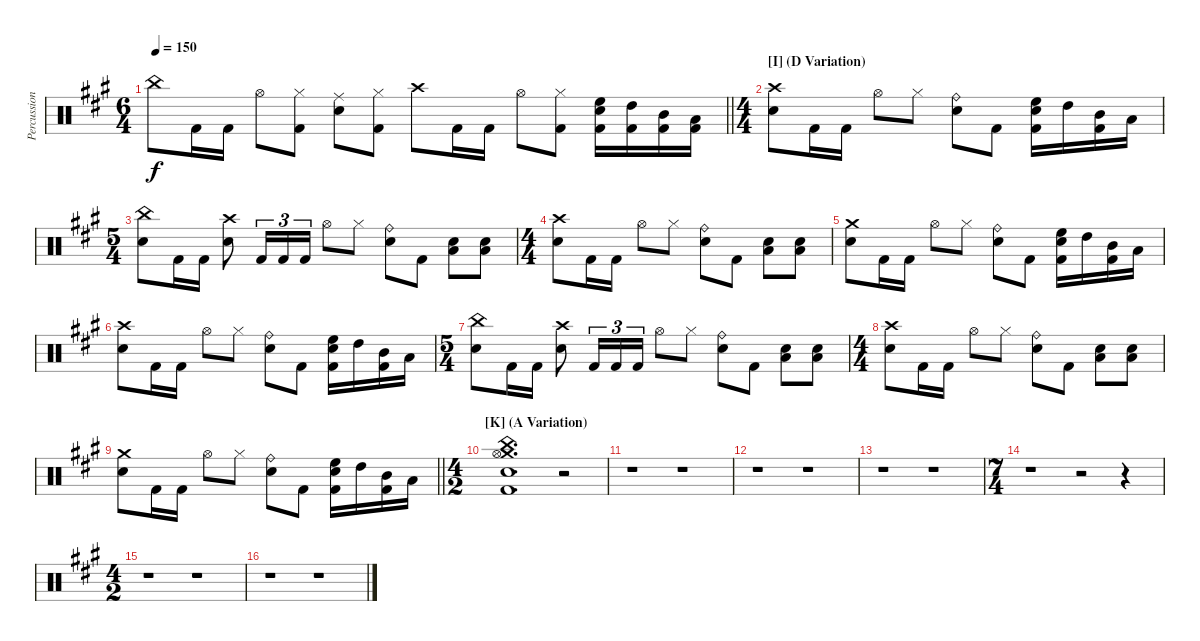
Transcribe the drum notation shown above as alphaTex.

\track ("Percussion" "Percussion") {instrument percussion}
\staff {score}
\articulation defaults
\ts (6 4)
\tempo 150
\clef neutral
\barLineRight lightlight
\ks f#minor "China (hit)".8{dy f} "Kick (hit) 2".16 "Kick (hit) 2".16 "Hi-Hat (open)".8
("Hi-Hat (closed)" "Kick (hit) 2").8 ("Ride (middle)" "Snare (hit) 2").8 ("Hi-Hat (closed)" "Kick (hit) 2").8 "Crash high (hit)".8 "Kick (hit) 2".16 "Kick (hit) 2".16 "Hi-Hat (open)".8 ("Hi-Hat (closed)" "Kick (hit) 2").8 ("High Floor Tom (hit)" "Snare (hit) 2" "Kick (hit) 2").16 ("High Tom (hit)" "Kick (hit) 2").16 ("Mid Tom (hit)" "Kick (hit) 2").16 ("Low Tom (hit)" "Kick (hit) 2").16 |
\ts (4 4)
\section ("" "[I] (D Variation)")
("Crash high (hit)" "Snare (hit) 2").8 "Kick (hit) 2".16 "Kick (hit) 2".16 "Hi-Hat (open)".8 "Hi-Hat (closed)".8 ("Ride (bell)" "Snare (hit) 2").8 "Kick (hit) 2".8 ("High Floor Tom (hit)" "Snare (hit) 2" "Kick (hit) 2").16 "High Tom (hit)".16 ("Mid Tom (hit)" "Kick (hit) 2").16 "Low Tom (hit)".16 |
\ts (5 4)
("China (hit)" "Snare (hit) 2").8 "Kick (hit) 2".16 "Kick (hit) 2".16 ("Crash high (hit)" "Snare (hit) 2").8 "Kick (hit) 2".16{tu (3 2)} "Kick (hit) 2".16{tu (3 2)} "Kick (hit) 2".16{tu (3 2)} "Hi-Hat (open)".8 "Hi-Hat (closed)".8 ("Ride (bell)" "Snare (hit) 2").8 "Kick (hit) 2".8 ("Snare (hit) 2" "Low Floor Tom (hit)").8 ("Snare (hit) 2" "Low Floor Tom (hit)").8 |
\ts (4 4)
("Crash high (hit)" "Snare (hit) 2").8 "Kick (hit) 2".16 "Kick (hit) 2".16 "Hi-Hat (open)".8 "Hi-Hat (closed)".8 ("Ride (bell)" "Snare (hit) 2").8 "Kick (hit) 2".8 ("Snare (hit) 2" "Low Floor Tom (hit)").8 ("Snare (hit) 2" "Low Floor Tom (hit)").8 |
("Crash medium (hit)" "Snare (hit) 2").8 "Kick (hit) 2".16 "Kick (hit) 2".16 "Hi-Hat (open)".8 "Hi-Hat (closed)".8 ("Ride (bell)" "Snare (hit) 2").8 "Kick (hit) 2".8 ("High Floor Tom (hit)" "Snare (hit) 2" "Kick (hit) 2").16 "High Tom (hit)".16 ("Mid Tom (hit)" "Kick (hit) 2").16 "Low Tom (hit)".16 |
("Crash high (hit)" "Snare (hit) 2").8 "Kick (hit) 2".16 "Kick (hit) 2".16 "Hi-Hat (open)".8 "Hi-Hat (closed)".8 ("Ride (bell)" "Snare (hit) 2").8 "Kick (hit) 2".8 ("High Floor Tom (hit)" "Snare (hit) 2" "Kick (hit) 2").16 "High Tom (hit)".16 ("Mid Tom (hit)" "Kick (hit) 2").16 "Low Tom (hit)".16 |
\ts (5 4)
("China (hit)" "Snare (hit) 2").8 "Kick (hit) 2".16 "Kick (hit) 2".16 ("Crash high (hit)" "Snare (hit) 2").8 "Kick (hit) 2".16{tu (3 2)} "Kick (hit) 2".16{tu (3 2)} "Kick (hit) 2".16{tu (3 2)} "Hi-Hat (open)".8 "Hi-Hat (closed)".8 ("Ride (bell)" "Snare (hit) 2").8 "Kick (hit) 2".8 ("Snare (hit) 2" "Low Floor Tom (hit)").8 ("Snare (hit) 2" "Low Floor Tom (hit)").8 |
\ts (4 4)
("Crash high (hit)" "Snare (hit) 2").8 "Kick (hit) 2".16 "Kick (hit) 2".16 "Hi-Hat (open)".8 "Hi-Hat (closed)".8 ("Ride (bell)" "Snare (hit) 2").8 "Kick (hit) 2".8 ("Snare (hit) 2" "Low Floor Tom (hit)").8 ("Snare (hit) 2" "Low Floor Tom (hit)").8 |
\barLineRight lightlight
("Crash medium (hit)" "Snare (hit) 2").8 "Kick (hit) 2".16 "Kick (hit) 2".16 "Hi-Hat (open)".8 "Hi-Hat (closed)".8 ("Ride (bell)" "Snare (hit) 2").8 "Kick (hit) 2".8 ("High Floor Tom (hit)" "Snare (hit) 2" "Kick (hit) 2").16 "High Tom (hit)".16 ("Mid Tom (hit)" "Kick (hit) 2").16 "Low Tom (hit)".16 |
\ts (4 2)
\section ("" "[K] (A Variation)")
("Crash medium (hit)" "China (hit)" "Hi-Hat (open)" "Snare (hit) 2" "Kick (hit) 2").1{d} r.2 |
r.1 r.1 |
r.1 r.1 |
r.1 r.1 |
\ts (7 4)
r.1 r.2 r.4 |
\ts (4 2)
r.1 r.1 |
r.1 r.1
